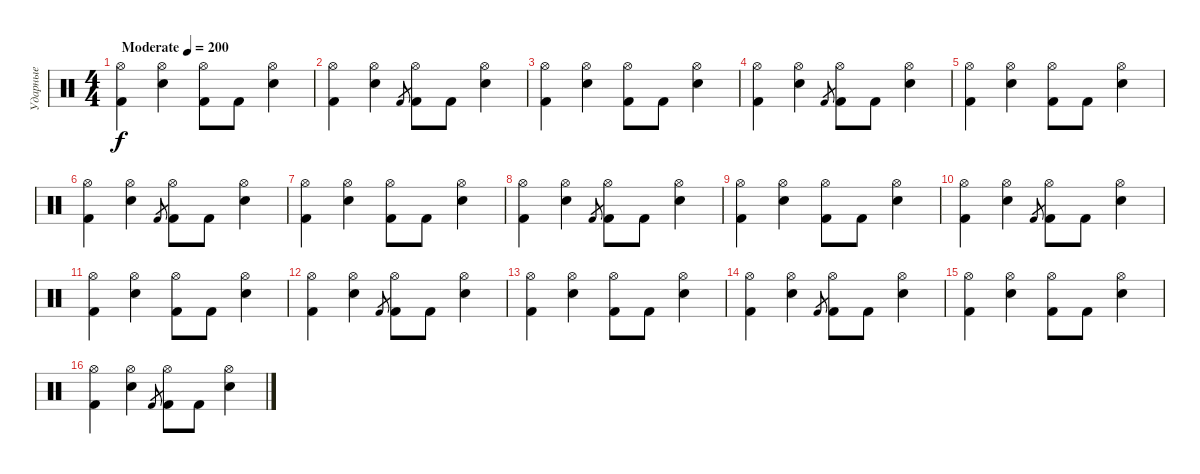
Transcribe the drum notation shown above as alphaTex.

\track ("Ударные" "Ударные") {instrument percussion}
\staff {score}
\articulation defaults
\ts (4 4)
\tempo (200 "Moderate")
\clef neutral
\ks c
("Hi-Hat (open)" "Kick (hit) 2").4{dy f} ("Hi-Hat (open)" "Electric Snare (hit)").4 ("Hi-Hat (open)" "Kick (hit) 2").8 "Kick (hit) 2".8 ("Hi-Hat (open)" "Electric Snare (hit)").4 |
("Hi-Hat (open)" "Kick (hit) 2").4 ("Hi-Hat (open)" "Electric Snare (hit)").4 "Kick (hit) 2".8{gr} ("Hi-Hat (open)" "Kick (hit) 2").8 "Kick (hit) 2".8 ("Hi-Hat (open)" "Electric Snare (hit)").4 |
("Hi-Hat (open)" "Kick (hit) 2").4 ("Hi-Hat (open)" "Electric Snare (hit)").4 ("Hi-Hat (open)" "Kick (hit) 2").8 "Kick (hit) 2".8 ("Hi-Hat (open)" "Electric Snare (hit)").4 |
("Hi-Hat (open)" "Kick (hit) 2").4 ("Hi-Hat (open)" "Electric Snare (hit)").4 "Kick (hit) 2".8{gr} ("Hi-Hat (open)" "Kick (hit) 2").8 "Kick (hit) 2".8 ("Hi-Hat (open)" "Electric Snare (hit)").4 |
("Hi-Hat (open)" "Kick (hit) 2").4 ("Hi-Hat (open)" "Electric Snare (hit)").4 ("Hi-Hat (open)" "Kick (hit) 2").8 "Kick (hit) 2".8 ("Hi-Hat (open)" "Electric Snare (hit)").4 |
("Hi-Hat (open)" "Kick (hit) 2").4 ("Hi-Hat (open)" "Electric Snare (hit)").4 "Kick (hit) 2".8{gr} ("Hi-Hat (open)" "Kick (hit) 2").8 "Kick (hit) 2".8 ("Hi-Hat (open)" "Electric Snare (hit)").4 |
("Hi-Hat (open)" "Kick (hit) 2").4 ("Hi-Hat (open)" "Electric Snare (hit)").4 ("Hi-Hat (open)" "Kick (hit) 2").8 "Kick (hit) 2".8 ("Hi-Hat (open)" "Electric Snare (hit)").4 |
("Hi-Hat (open)" "Kick (hit) 2").4 ("Hi-Hat (open)" "Electric Snare (hit)").4 "Kick (hit) 2".8{gr} ("Hi-Hat (open)" "Kick (hit) 2").8 "Kick (hit) 2".8 ("Hi-Hat (open)" "Electric Snare (hit)").4 |
("Hi-Hat (open)" "Kick (hit) 2").4 ("Hi-Hat (open)" "Electric Snare (hit)").4 ("Hi-Hat (open)" "Kick (hit) 2").8 "Kick (hit) 2".8 ("Hi-Hat (open)" "Electric Snare (hit)").4 |
("Hi-Hat (open)" "Kick (hit) 2").4 ("Hi-Hat (open)" "Electric Snare (hit)").4 "Kick (hit) 2".8{gr} ("Hi-Hat (open)" "Kick (hit) 2").8 "Kick (hit) 2".8 ("Hi-Hat (open)" "Electric Snare (hit)").4 |
("Hi-Hat (open)" "Kick (hit) 2").4 ("Hi-Hat (open)" "Electric Snare (hit)").4 ("Hi-Hat (open)" "Kick (hit) 2").8 "Kick (hit) 2".8 ("Hi-Hat (open)" "Electric Snare (hit)").4 |
("Hi-Hat (open)" "Kick (hit) 2").4 ("Hi-Hat (open)" "Electric Snare (hit)").4 "Kick (hit) 2".8{gr} ("Hi-Hat (open)" "Kick (hit) 2").8 "Kick (hit) 2".8 ("Hi-Hat (open)" "Electric Snare (hit)").4 |
("Hi-Hat (open)" "Kick (hit) 2").4 ("Hi-Hat (open)" "Electric Snare (hit)").4 ("Hi-Hat (open)" "Kick (hit) 2").8 "Kick (hit) 2".8 ("Hi-Hat (open)" "Electric Snare (hit)").4 |
("Hi-Hat (open)" "Kick (hit) 2").4 ("Hi-Hat (open)" "Electric Snare (hit)").4 "Kick (hit) 2".8{gr} ("Hi-Hat (open)" "Kick (hit) 2").8 "Kick (hit) 2".8 ("Hi-Hat (open)" "Electric Snare (hit)").4 |
("Hi-Hat (open)" "Kick (hit) 2").4 ("Hi-Hat (open)" "Electric Snare (hit)").4 ("Hi-Hat (open)" "Kick (hit) 2").8 "Kick (hit) 2".8 ("Hi-Hat (open)" "Electric Snare (hit)").4 |
("Hi-Hat (open)" "Kick (hit) 2").4 ("Hi-Hat (open)" "Electric Snare (hit)").4 "Kick (hit) 2".8{gr} ("Hi-Hat (open)" "Kick (hit) 2").8 "Kick (hit) 2".8 ("Hi-Hat (open)" "Electric Snare (hit)").4
